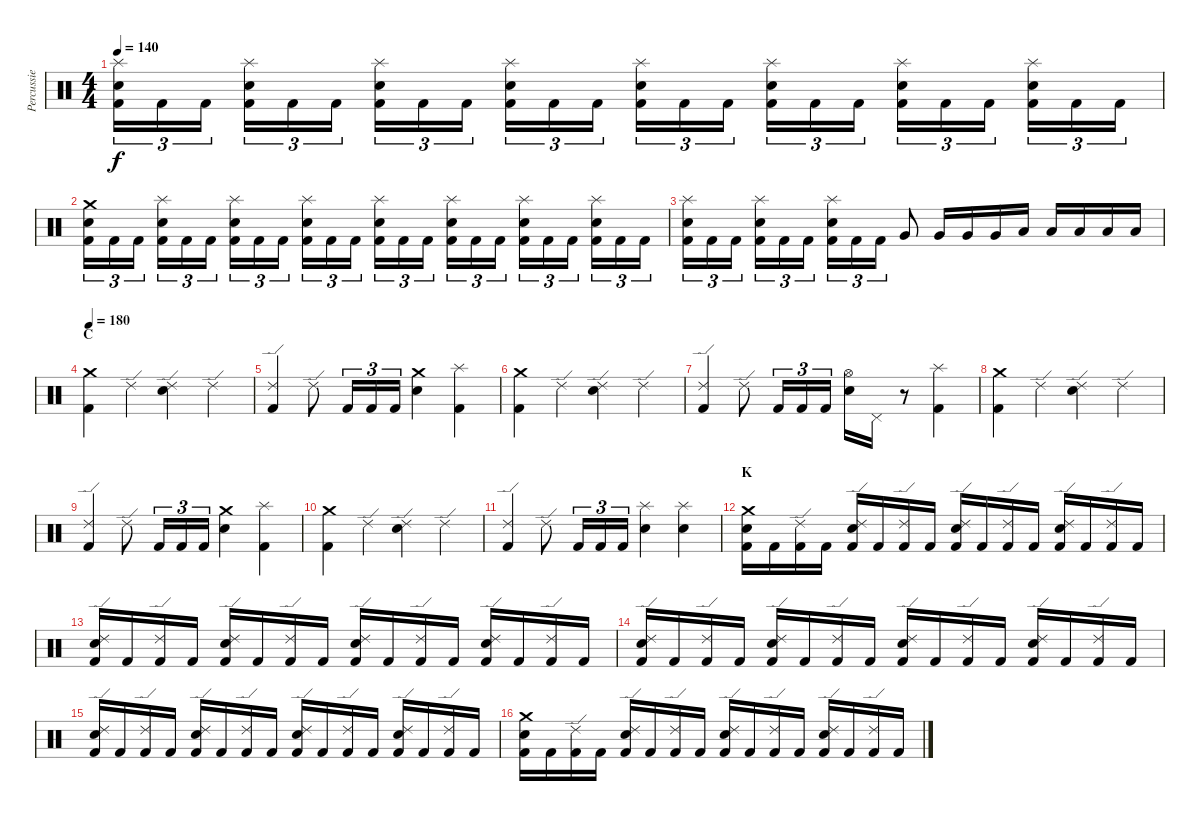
\track ("Percussie" "Percussie") {instrument percussion}
\staff {score}
\articulation defaults
\ts (4 4)
\tempo 140
\clef neutral
\ks c
("Splash (hit)" "Electric Snare (hit)" "Kick (hit) 2").16{tu (3 2) dy f} "Kick (hit) 2".16{tu (3 2)} "Kick (hit) 2".16{tu (3 2)} ("Splash (hit)" "Electric Snare (hit)" "Kick (hit) 2").16{tu (3 2)} "Kick (hit) 2".16{tu (3 2)} "Kick (hit) 2".16{tu (3 2)} ("Splash (hit)" "Electric Snare (hit)" "Kick (hit) 2").16{tu (3 2)} "Kick (hit) 2".16{tu (3 2)} "Kick (hit) 2".16{tu (3 2)} ("Splash (hit)" "Electric Snare (hit)" "Kick (hit) 2").16{tu (3 2)} "Kick (hit) 2".16{tu (3 2)} "Kick (hit) 2".16{tu (3 2)} ("Splash (hit)" "Electric Snare (hit)" "Kick (hit) 2").16{tu (3 2)} "Kick (hit) 2".16{tu (3 2)} "Kick (hit) 2".16{tu (3 2)} ("Splash (hit)" "Electric Snare (hit)" "Kick (hit) 2").16{tu (3 2)} "Kick (hit) 2".16{tu (3 2)} "Kick (hit) 2".16{tu (3 2)} ("Splash (hit)" "Electric Snare (hit)" "Kick (hit) 2").16{tu (3 2)} "Kick (hit) 2".16{tu (3 2)} "Kick (hit) 2".16{tu (3 2)} ("Splash (hit)" "Electric Snare (hit)" "Kick (hit) 2").16{tu (3 2)} "Kick (hit) 2".16{tu (3 2)} "Kick (hit) 2".16{tu (3 2)} |
("Crash medium (hit)" "Electric Snare (hit)" "Kick (hit) 2").16{tu (3 2)} "Kick (hit) 2".16{tu (3 2)} "Kick (hit) 2".16{tu (3 2)} ("Splash (hit)" "Electric Snare (hit)" "Kick (hit) 2").16{tu (3 2)} "Kick (hit) 2".16{tu (3 2)} "Kick (hit) 2".16{tu (3 2)} ("Splash (hit)" "Electric Snare (hit)" "Kick (hit) 2").16{tu (3 2)} "Kick (hit) 2".16{tu (3 2)} "Kick (hit) 2".16{tu (3 2)} ("Splash (hit)" "Electric Snare (hit)" "Kick (hit) 2").16{tu (3 2)} "Kick (hit) 2".16{tu (3 2)} "Kick (hit) 2".16{tu (3 2)} ("Splash (hit)" "Electric Snare (hit)" "Kick (hit) 2").16{tu (3 2)} "Kick (hit) 2".16{tu (3 2)} "Kick (hit) 2".16{tu (3 2)} ("Splash (hit)" "Electric Snare (hit)" "Kick (hit) 2").16{tu (3 2)} "Kick (hit) 2".16{tu (3 2)} "Kick (hit) 2".16{tu (3 2)} ("Splash (hit)" "Electric Snare (hit)" "Kick (hit) 2").16{tu (3 2)} "Kick (hit) 2".16{tu (3 2)} "Kick (hit) 2".16{tu (3 2)} ("Splash (hit)" "Electric Snare (hit)" "Kick (hit) 2").16{tu (3 2)} "Kick (hit) 2".16{tu (3 2)} "Kick (hit) 2".16{tu (3 2)} |
("Splash (hit)" "Electric Snare (hit)" "Kick (hit) 2").16{tu (3 2)} "Kick (hit) 2".16{tu (3 2)} "Kick (hit) 2".16{tu (3 2)} ("Splash (hit)" "Electric Snare (hit)" "Kick (hit) 2").16{tu (3 2)} "Kick (hit) 2".16{tu (3 2)} "Kick (hit) 2".16{tu (3 2)} ("Splash (hit)" "Electric Snare (hit)" "Kick (hit) 2").16{tu (3 2)} "Kick (hit) 2".16{tu (3 2)} "Kick (hit) 2".16{tu (3 2)} "Very Low Tom (hit)".8 "Very Low Tom (hit)".16 "Very Low Tom (hit)".16 "Very Low Tom (hit)".16 "Low Floor Tom (hit)".16 "Low Floor Tom (hit)".16 "Low Floor Tom (hit)".16 "Low Floor Tom (hit)".16 "Low Floor Tom (hit)".16 |
\section ("" "C")
\tempo 180
("Crash medium (hit)" "Kick (hit) 2").4 "Ride (edge) 2".4 ("Ride (edge) 2" "Electric Snare (hit)").4 "Ride (edge) 2".4 |
("Ride (edge) 2" "Kick (hit) 2").4 "Ride (edge) 2".8 "Kick (hit) 2".16{tu (3 2)} "Kick (hit) 2".16{tu (3 2)} "Kick (hit) 2".16{tu (3 2)} ("Crash medium (hit)" "Electric Snare (hit)").4 ("Splash (hit)" "Kick (hit) 2").4 |
("Crash medium (hit)" "Kick (hit) 2").4 "Ride (edge) 2".4 ("Ride (edge) 2" "Electric Snare (hit)").4 "Ride (edge) 2".4 |
("Ride (edge) 2" "Kick (hit) 2").4 "Ride (edge) 2".8 "Kick (hit) 2".16{tu (3 2)} "Kick (hit) 2".16{tu (3 2)} "Kick (hit) 2".16{tu (3 2)} ("Hi-Hat (open)" "Electric Snare (hit)").16 "Pedal Hi-Hat (hit)".16 r.8 ("Splash (hit)" "Kick (hit) 2").4 |
("Crash medium (hit)" "Kick (hit) 2").4 "Ride (edge) 2".4 ("Ride (edge) 2" "Electric Snare (hit)").4 "Ride (edge) 2".4 |
("Ride (edge) 2" "Kick (hit) 2").4 "Ride (edge) 2".8 "Kick (hit) 2".16{tu (3 2)} "Kick (hit) 2".16{tu (3 2)} "Kick (hit) 2".16{tu (3 2)} ("Crash medium (hit)" "Electric Snare (hit)").4 ("Splash (hit)" "Kick (hit) 2").4 |
("Crash medium (hit)" "Kick (hit) 2").4 "Ride (edge) 2".4 ("Ride (edge) 2" "Electric Snare (hit)").4 "Ride (edge) 2".4 |
("Ride (edge) 2" "Kick (hit) 2").4 "Ride (edge) 2".8 "Kick (hit) 2".16{tu (3 2)} "Kick (hit) 2".16{tu (3 2)} "Kick (hit) 2".16{tu (3 2)} ("Splash (hit)" "Electric Snare (hit)").4 ("Splash (hit)" "Electric Snare (hit)").4 |
\section ("" "K")
("Crash medium (hit)" "Electric Snare (hit)" "Kick (hit) 2").16 "Kick (hit) 2".16 ("Ride (edge) 2" "Kick (hit) 2").16 "Kick (hit) 2".16 ("Ride (edge) 2" "Electric Snare (hit)" "Kick (hit) 2").16 "Kick (hit) 2".16 ("Ride (edge) 2" "Kick (hit) 2").16 "Kick (hit) 2".16 ("Ride (edge) 2" "Electric Snare (hit)" "Kick (hit) 2").16 "Kick (hit) 2".16 ("Ride (edge) 2" "Kick (hit) 2").16 "Kick (hit) 2".16 ("Ride (edge) 2" "Electric Snare (hit)" "Kick (hit) 2").16 "Kick (hit) 2".16 ("Ride (edge) 2" "Kick (hit) 2").16 "Kick (hit) 2".16 |
("Ride (edge) 2" "Electric Snare (hit)" "Kick (hit) 2").16 "Kick (hit) 2".16 ("Ride (edge) 2" "Kick (hit) 2").16 "Kick (hit) 2".16 ("Ride (edge) 2" "Electric Snare (hit)" "Kick (hit) 2").16 "Kick (hit) 2".16 ("Ride (edge) 2" "Kick (hit) 2").16 "Kick (hit) 2".16 ("Ride (edge) 2" "Electric Snare (hit)" "Kick (hit) 2").16 "Kick (hit) 2".16 ("Ride (edge) 2" "Kick (hit) 2").16 "Kick (hit) 2".16 ("Ride (edge) 2" "Electric Snare (hit)" "Kick (hit) 2").16 "Kick (hit) 2".16 ("Ride (edge) 2" "Kick (hit) 2").16 "Kick (hit) 2".16 |
("Ride (edge) 2" "Electric Snare (hit)" "Kick (hit) 2").16 "Kick (hit) 2".16 ("Ride (edge) 2" "Kick (hit) 2").16 "Kick (hit) 2".16 ("Ride (edge) 2" "Electric Snare (hit)" "Kick (hit) 2").16 "Kick (hit) 2".16 ("Ride (edge) 2" "Kick (hit) 2").16 "Kick (hit) 2".16 ("Ride (edge) 2" "Electric Snare (hit)" "Kick (hit) 2").16 "Kick (hit) 2".16 ("Ride (edge) 2" "Kick (hit) 2").16 "Kick (hit) 2".16 ("Ride (edge) 2" "Electric Snare (hit)" "Kick (hit) 2").16 "Kick (hit) 2".16 ("Ride (edge) 2" "Kick (hit) 2").16 "Kick (hit) 2".16 |
("Ride (edge) 2" "Electric Snare (hit)" "Kick (hit) 2").16 "Kick (hit) 2".16 ("Ride (edge) 2" "Kick (hit) 2").16 "Kick (hit) 2".16 ("Ride (edge) 2" "Electric Snare (hit)" "Kick (hit) 2").16 "Kick (hit) 2".16 ("Ride (edge) 2" "Kick (hit) 2").16 "Kick (hit) 2".16 ("Ride (edge) 2" "Electric Snare (hit)" "Kick (hit) 2").16 "Kick (hit) 2".16 ("Ride (edge) 2" "Kick (hit) 2").16 "Kick (hit) 2".16 ("Ride (edge) 2" "Electric Snare (hit)" "Kick (hit) 2").16 "Kick (hit) 2".16 ("Ride (edge) 2" "Kick (hit) 2").16 "Kick (hit) 2".16 |
("Crash medium (hit)" "Electric Snare (hit)" "Kick (hit) 2").16 "Kick (hit) 2".16 ("Ride (edge) 2" "Kick (hit) 2").16 "Kick (hit) 2".16 ("Ride (edge) 2" "Electric Snare (hit)" "Kick (hit) 2").16 "Kick (hit) 2".16 ("Ride (edge) 2" "Kick (hit) 2").16 "Kick (hit) 2".16 ("Ride (edge) 2" "Electric Snare (hit)" "Kick (hit) 2").16 "Kick (hit) 2".16 ("Ride (edge) 2" "Kick (hit) 2").16 "Kick (hit) 2".16 ("Ride (edge) 2" "Electric Snare (hit)" "Kick (hit) 2").16 "Kick (hit) 2".16 ("Ride (edge) 2" "Kick (hit) 2").16 "Kick (hit) 2".16
